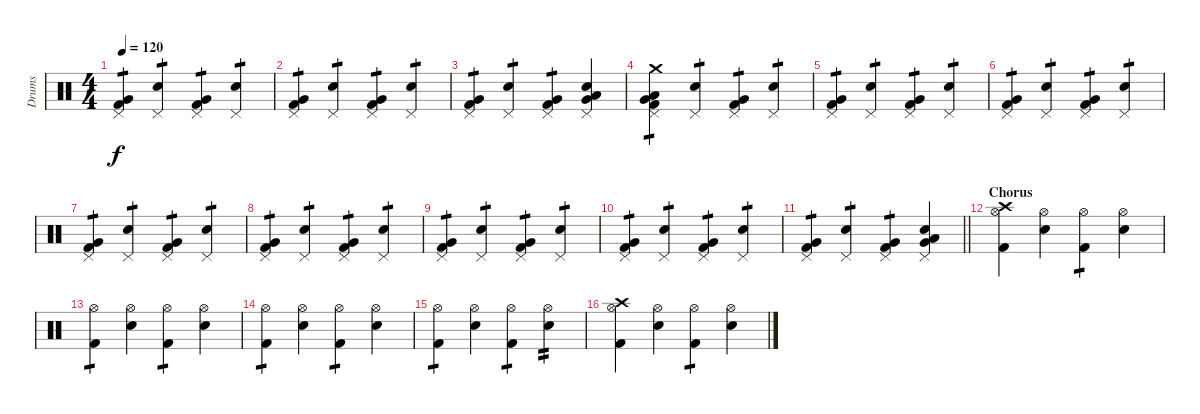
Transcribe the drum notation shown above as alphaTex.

\track ("Drums" "Drums") {instrument percussion}
\staff {score}
\articulation defaults
\ts (4 4)
\tempo 120
\clef neutral
\ks c
("Pedal Hi-Hat (hit)" "Kick (hit) 2" "Very Low Tom (hit)").4{tp 1 dy f} ("Pedal Hi-Hat (hit)" "Electric Snare (hit)").4{tp 1} ("Pedal Hi-Hat (hit)" "Kick (hit) 2" "Very Low Tom (hit)").4{tp 1} ("Pedal Hi-Hat (hit)" "Electric Snare (hit)").4{tp 1} |
("Pedal Hi-Hat (hit)" "Kick (hit) 2" "Very Low Tom (hit)").4{tp 1} ("Pedal Hi-Hat (hit)" "Electric Snare (hit)").4{tp 1} ("Pedal Hi-Hat (hit)" "Kick (hit) 2" "Very Low Tom (hit)").4{tp 1} ("Pedal Hi-Hat (hit)" "Electric Snare (hit)").4{tp 1} |
("Pedal Hi-Hat (hit)" "Kick (hit) 2" "Very Low Tom (hit)").4{tp 1} ("Pedal Hi-Hat (hit)" "Electric Snare (hit)").4{tp 1} ("Pedal Hi-Hat (hit)" "Kick (hit) 2" "Very Low Tom (hit)").4{tp 1} ("Pedal Hi-Hat (hit)" "Electric Snare (hit)" "Low Tom (hit)" "Very Low Tom (hit)").4 |
("Pedal Hi-Hat (hit)" "Crash medium (hit)" "Kick (hit) 2" "Very Low Tom (hit)" "Low Tom (hit)").4{tp 1} ("Pedal Hi-Hat (hit)" "Electric Snare (hit)").4{tp 1} ("Pedal Hi-Hat (hit)" "Kick (hit) 2" "Very Low Tom (hit)").4{tp 1} ("Pedal Hi-Hat (hit)" "Electric Snare (hit)").4{tp 1} |
("Pedal Hi-Hat (hit)" "Kick (hit) 2" "Very Low Tom (hit)").4{tp 1} ("Pedal Hi-Hat (hit)" "Electric Snare (hit)").4{tp 1} ("Pedal Hi-Hat (hit)" "Kick (hit) 2" "Very Low Tom (hit)").4{tp 1} ("Pedal Hi-Hat (hit)" "Electric Snare (hit)").4{tp 1} |
("Pedal Hi-Hat (hit)" "Kick (hit) 2" "Very Low Tom (hit)").4{tp 1} ("Pedal Hi-Hat (hit)" "Electric Snare (hit)").4{tp 1} ("Pedal Hi-Hat (hit)" "Kick (hit) 2" "Very Low Tom (hit)").4{tp 1} ("Pedal Hi-Hat (hit)" "Electric Snare (hit)").4{tp 1} |
("Pedal Hi-Hat (hit)" "Kick (hit) 2" "Very Low Tom (hit)").4{tp 1} ("Pedal Hi-Hat (hit)" "Electric Snare (hit)").4{tp 1} ("Pedal Hi-Hat (hit)" "Kick (hit) 2" "Very Low Tom (hit)").4{tp 1} ("Pedal Hi-Hat (hit)" "Electric Snare (hit)").4{tp 1} |
("Pedal Hi-Hat (hit)" "Kick (hit) 2" "Very Low Tom (hit)").4{tp 1} ("Pedal Hi-Hat (hit)" "Electric Snare (hit)").4{tp 1} ("Pedal Hi-Hat (hit)" "Kick (hit) 2" "Very Low Tom (hit)").4{tp 1} ("Pedal Hi-Hat (hit)" "Electric Snare (hit)").4{tp 1} |
("Pedal Hi-Hat (hit)" "Kick (hit) 2" "Very Low Tom (hit)").4{tp 1} ("Pedal Hi-Hat (hit)" "Electric Snare (hit)").4{tp 1} ("Pedal Hi-Hat (hit)" "Kick (hit) 2" "Very Low Tom (hit)").4{tp 1} ("Pedal Hi-Hat (hit)" "Electric Snare (hit)").4{tp 1} |
("Pedal Hi-Hat (hit)" "Kick (hit) 2" "Very Low Tom (hit)").4{tp 1} ("Pedal Hi-Hat (hit)" "Electric Snare (hit)").4{tp 1} ("Pedal Hi-Hat (hit)" "Kick (hit) 2" "Very Low Tom (hit)").4{tp 1} ("Pedal Hi-Hat (hit)" "Electric Snare (hit)").4{tp 1} |
\barLineRight lightlight
("Pedal Hi-Hat (hit)" "Kick (hit) 2" "Very Low Tom (hit)").4{tp 1} ("Pedal Hi-Hat (hit)" "Electric Snare (hit)").4{tp 1} ("Pedal Hi-Hat (hit)" "Kick (hit) 2" "Very Low Tom (hit)").4{tp 1} ("Pedal Hi-Hat (hit)" "Electric Snare (hit)" "Low Tom (hit)" "Very Low Tom (hit)").4 |
\section ("" "Chorus")
("Hi-Hat (open)" "Crash high (hit)" "Kick (hit) 2").4 ("Hi-Hat (open)" "Electric Snare (hit)").4 ("Hi-Hat (open)" "Kick (hit) 2").4{tp 1} ("Hi-Hat (open)" "Electric Snare (hit)").4 |
("Hi-Hat (open)" "Kick (hit) 2").4{tp 1} ("Hi-Hat (open)" "Electric Snare (hit)").4 ("Hi-Hat (open)" "Kick (hit) 2").4{tp 1} ("Hi-Hat (open)" "Electric Snare (hit)").4 |
("Hi-Hat (open)" "Kick (hit) 2").4{tp 1} ("Hi-Hat (open)" "Electric Snare (hit)").4 ("Hi-Hat (open)" "Kick (hit) 2").4{tp 1} ("Hi-Hat (open)" "Electric Snare (hit)").4 |
("Hi-Hat (open)" "Kick (hit) 2").4{tp 1} ("Hi-Hat (open)" "Electric Snare (hit)").4 ("Hi-Hat (open)" "Kick (hit) 2").4{tp 1} ("Hi-Hat (open)" "Electric Snare (hit)").4{tp 2} |
("Hi-Hat (open)" "Crash high (hit)" "Kick (hit) 2").4 ("Hi-Hat (open)" "Electric Snare (hit)").4 ("Hi-Hat (open)" "Kick (hit) 2").4{tp 1} ("Hi-Hat (open)" "Electric Snare (hit)").4
